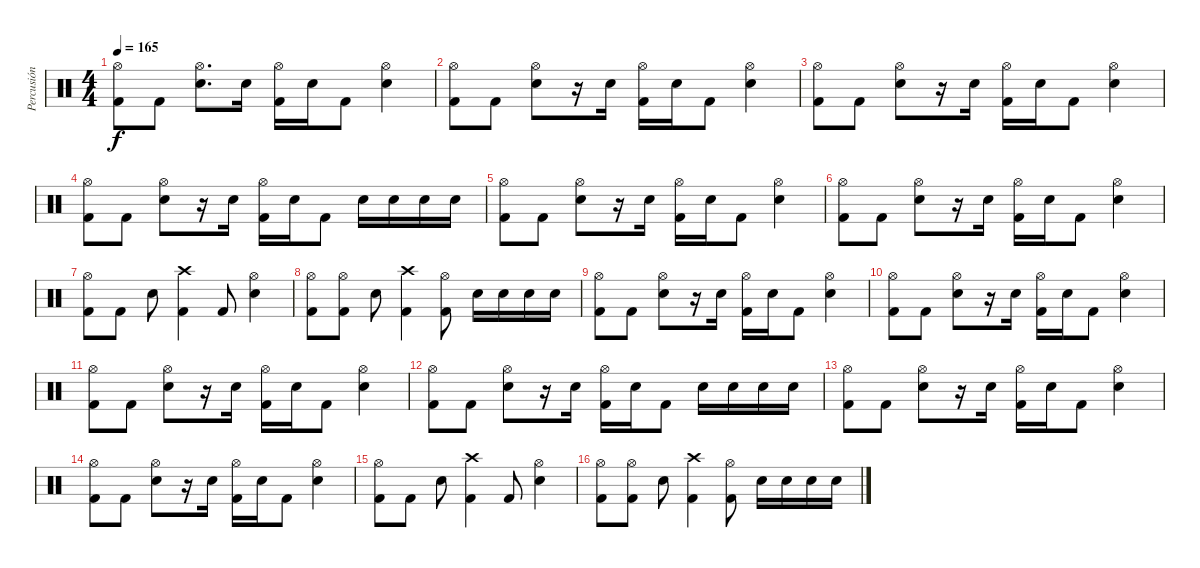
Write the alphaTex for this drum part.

\track ("Percusión" "Percusión") {instrument percussion}
\staff {score}
\articulation defaults
\ts (4 4)
\tempo 165
\clef neutral
\ks c
("Hi-Hat (open)" "Kick (hit) 2").8{dy f} "Kick (hit) 2".8 ("Hi-Hat (open)" "Electric Snare (hit)").8{d} "Electric Snare (hit)".16 ("Hi-Hat (open)" "Kick (hit) 2").16 "Electric Snare (hit)".16 "Kick (hit) 2".8 ("Hi-Hat (open)" "Electric Snare (hit)").4 |
("Hi-Hat (open)" "Kick (hit) 2").8 "Kick (hit) 2".8 ("Hi-Hat (open)" "Electric Snare (hit)").8 r.16 "Electric Snare (hit)".16 ("Hi-Hat (open)" "Kick (hit) 2").16 "Electric Snare (hit)".16 "Kick (hit) 2".8 ("Hi-Hat (open)" "Electric Snare (hit)").4 |
("Hi-Hat (open)" "Kick (hit) 2").8 "Kick (hit) 2".8 ("Hi-Hat (open)" "Electric Snare (hit)").8 r.16 "Electric Snare (hit)".16 ("Hi-Hat (open)" "Kick (hit) 2").16 "Electric Snare (hit)".16 "Kick (hit) 2".8 ("Hi-Hat (open)" "Electric Snare (hit)").4 |
("Hi-Hat (open)" "Kick (hit) 2").8 "Kick (hit) 2".8 ("Hi-Hat (open)" "Electric Snare (hit)").8 r.16 "Electric Snare (hit)".16 ("Hi-Hat (open)" "Kick (hit) 2").16 "Electric Snare (hit)".16 "Kick (hit) 2".8 "Electric Snare (hit)".16 "Electric Snare (hit)".16 "Electric Snare (hit)".16 "Electric Snare (hit)".16 |
("Hi-Hat (open)" "Kick (hit) 2").8 "Kick (hit) 2".8 ("Hi-Hat (open)" "Electric Snare (hit)").8 r.16 "Electric Snare (hit)".16 ("Hi-Hat (open)" "Kick (hit) 2").16 "Electric Snare (hit)".16 "Kick (hit) 2".8 ("Hi-Hat (open)" "Electric Snare (hit)").4 |
("Hi-Hat (open)" "Kick (hit) 2").8 "Kick (hit) 2".8 ("Hi-Hat (open)" "Electric Snare (hit)").8 r.16 "Electric Snare (hit)".16 ("Hi-Hat (open)" "Kick (hit) 2").16 "Electric Snare (hit)".16 "Kick (hit) 2".8 ("Hi-Hat (open)" "Electric Snare (hit)").4 |
("Hi-Hat (open)" "Kick (hit) 2").8 "Kick (hit) 2".8 "Electric Snare (hit)".8 ("Crash high (hit)" "Kick (hit) 2").4 "Kick (hit) 2".8 ("Hi-Hat (open)" "Electric Snare (hit)").4 |
("Hi-Hat (open)" "Kick (hit) 2").8 ("Hi-Hat (open)" "Kick (hit) 2").8 "Electric Snare (hit)".8 ("Crash high (hit)" "Kick (hit) 2").4 ("Hi-Hat (open)" "Kick (hit) 2").8 "Electric Snare (hit)".16 "Electric Snare (hit)".16 "Electric Snare (hit)".16 "Electric Snare (hit)".16 |
("Hi-Hat (open)" "Kick (hit) 2").8 "Kick (hit) 2".8 ("Hi-Hat (open)" "Electric Snare (hit)").8 r.16 "Electric Snare (hit)".16 ("Hi-Hat (open)" "Kick (hit) 2").16 "Electric Snare (hit)".16 "Kick (hit) 2".8 ("Hi-Hat (open)" "Electric Snare (hit)").4 |
("Hi-Hat (open)" "Kick (hit) 2").8 "Kick (hit) 2".8 ("Hi-Hat (open)" "Electric Snare (hit)").8 r.16 "Electric Snare (hit)".16 ("Hi-Hat (open)" "Kick (hit) 2").16 "Electric Snare (hit)".16 "Kick (hit) 2".8 ("Hi-Hat (open)" "Electric Snare (hit)").4 |
("Hi-Hat (open)" "Kick (hit) 2").8 "Kick (hit) 2".8 ("Hi-Hat (open)" "Electric Snare (hit)").8 r.16 "Electric Snare (hit)".16 ("Hi-Hat (open)" "Kick (hit) 2").16 "Electric Snare (hit)".16 "Kick (hit) 2".8 ("Hi-Hat (open)" "Electric Snare (hit)").4 |
("Hi-Hat (open)" "Kick (hit) 2").8 "Kick (hit) 2".8 ("Hi-Hat (open)" "Electric Snare (hit)").8 r.16 "Electric Snare (hit)".16 ("Hi-Hat (open)" "Kick (hit) 2").16 "Electric Snare (hit)".16 "Kick (hit) 2".8 "Electric Snare (hit)".16 "Electric Snare (hit)".16 "Electric Snare (hit)".16 "Electric Snare (hit)".16 |
("Hi-Hat (open)" "Kick (hit) 2").8 "Kick (hit) 2".8 ("Hi-Hat (open)" "Electric Snare (hit)").8 r.16 "Electric Snare (hit)".16 ("Hi-Hat (open)" "Kick (hit) 2").16 "Electric Snare (hit)".16 "Kick (hit) 2".8 ("Hi-Hat (open)" "Electric Snare (hit)").4 |
("Hi-Hat (open)" "Kick (hit) 2").8 "Kick (hit) 2".8 ("Hi-Hat (open)" "Electric Snare (hit)").8 r.16 "Electric Snare (hit)".16 ("Hi-Hat (open)" "Kick (hit) 2").16 "Electric Snare (hit)".16 "Kick (hit) 2".8 ("Hi-Hat (open)" "Electric Snare (hit)").4 |
("Hi-Hat (open)" "Kick (hit) 2").8 "Kick (hit) 2".8 "Electric Snare (hit)".8 ("Crash high (hit)" "Kick (hit) 2").4 "Kick (hit) 2".8 ("Hi-Hat (open)" "Electric Snare (hit)").4 |
("Hi-Hat (open)" "Kick (hit) 2").8 ("Hi-Hat (open)" "Kick (hit) 2").8 "Electric Snare (hit)".8 ("Crash high (hit)" "Kick (hit) 2").4 ("Hi-Hat (open)" "Kick (hit) 2").8 "Electric Snare (hit)".16 "Electric Snare (hit)".16 "Electric Snare (hit)".16 "Electric Snare (hit)".16
